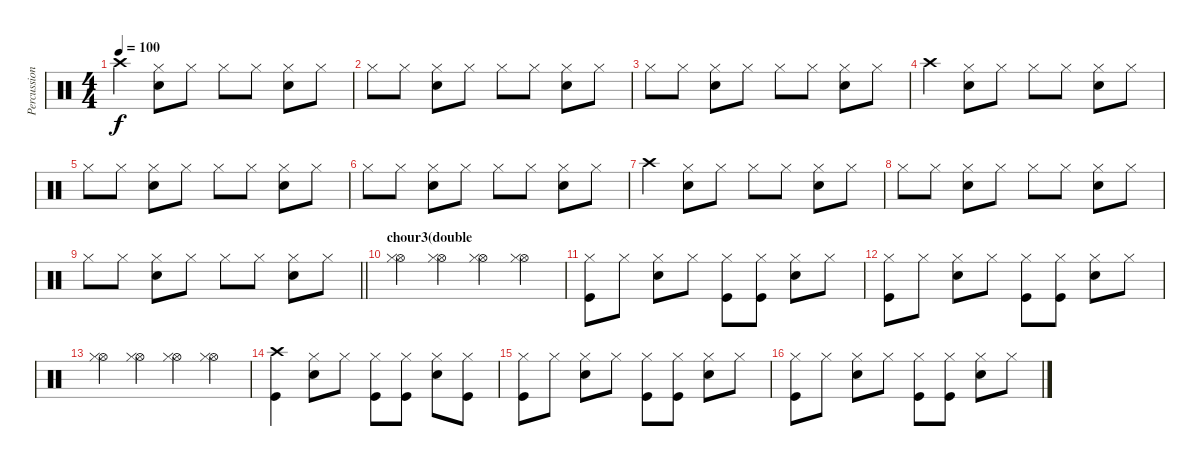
\track ("Percussioni" "Percussion") {instrument percussion}
\staff {score}
\articulation defaults
\ts (4 4)
\tempo 100
\clef neutral
\ks c "Crash high (hit)".4{dy f}
("Hi-Hat (closed)" "Snare (hit) 2").8 "Hi-Hat (closed)".8 "Hi-Hat (closed)".8 "Hi-Hat (closed)".8 ("Hi-Hat (closed)" "Snare (hit) 2").8 "Hi-Hat (closed)".8 |
"Hi-Hat (closed)".8 "Hi-Hat (closed)".8 ("Hi-Hat (closed)" "Snare (hit) 2").8 "Hi-Hat (closed)".8 "Hi-Hat (closed)".8 "Hi-Hat (closed)".8 ("Hi-Hat (closed)" "Snare (hit) 2").8 "Hi-Hat (closed)".8 |
"Hi-Hat (closed)".8 "Hi-Hat (closed)".8 ("Hi-Hat (closed)" "Snare (hit) 2").8 "Hi-Hat (closed)".8 "Hi-Hat (closed)".8 "Hi-Hat (closed)".8 ("Hi-Hat (closed)" "Snare (hit) 2").8 "Hi-Hat (closed)".8 |
"Crash high (hit)".4 ("Hi-Hat (closed)" "Snare (hit) 2").8 "Hi-Hat (closed)".8 "Hi-Hat (closed)".8 "Hi-Hat (closed)".8 ("Hi-Hat (closed)" "Snare (hit) 2").8 "Hi-Hat (closed)".8 |
"Hi-Hat (closed)".8 "Hi-Hat (closed)".8 ("Hi-Hat (closed)" "Snare (hit) 2").8 "Hi-Hat (closed)".8 "Hi-Hat (closed)".8 "Hi-Hat (closed)".8 ("Hi-Hat (closed)" "Snare (hit) 2").8 "Hi-Hat (closed)".8 |
"Hi-Hat (closed)".8 "Hi-Hat (closed)".8 ("Hi-Hat (closed)" "Snare (hit) 2").8 "Hi-Hat (closed)".8 "Hi-Hat (closed)".8 "Hi-Hat (closed)".8 ("Hi-Hat (closed)" "Snare (hit) 2").8 "Hi-Hat (closed)".8 |
"Crash high (hit)".4 ("Hi-Hat (closed)" "Snare (hit) 2").8 "Hi-Hat (closed)".8 "Hi-Hat (closed)".8 "Hi-Hat (closed)".8 ("Hi-Hat (closed)" "Snare (hit) 2").8 "Hi-Hat (closed)".8 |
"Hi-Hat (closed)".8 "Hi-Hat (closed)".8 ("Hi-Hat (closed)" "Snare (hit) 2").8 "Hi-Hat (closed)".8 "Hi-Hat (closed)".8 "Hi-Hat (closed)".8 ("Hi-Hat (closed)" "Snare (hit) 2").8 "Hi-Hat (closed)".8 |
\barLineRight lightlight "Hi-Hat (closed)".8 "Hi-Hat (closed)".8
("Hi-Hat (closed)" "Snare (hit) 2").8 "Hi-Hat (closed)".8 "Hi-Hat (closed)".8 "Hi-Hat (closed)".8 ("Hi-Hat (closed)" "Snare (hit) 2").8 "Hi-Hat (closed)".8 |
\section ("" "chour3(double")
("Hi-Hat (open)" "Hi-Hat (closed)").4 ("Hi-Hat (open)" "Hi-Hat (closed)").4 ("Hi-Hat (open)" "Hi-Hat (closed)").4 ("Hi-Hat (open)" "Hi-Hat (closed)").4 |
("Hi-Hat (closed)" "Kick (hit)").8 "Hi-Hat (closed)".8 ("Hi-Hat (closed)" "Snare (hit) 2").8 "Hi-Hat (closed)".8 ("Hi-Hat (closed)" "Kick (hit)").8 ("Hi-Hat (closed)" "Kick (hit)").8 ("Hi-Hat (closed)" "Snare (hit) 2").8 "Hi-Hat (closed)".8 |
("Hi-Hat (closed)" "Kick (hit)").8 "Hi-Hat (closed)".8 ("Hi-Hat (closed)" "Snare (hit) 2").8 "Hi-Hat (closed)".8 ("Hi-Hat (closed)" "Kick (hit)").8 ("Hi-Hat (closed)" "Kick (hit)").8 ("Hi-Hat (closed)" "Snare (hit) 2").8 "Hi-Hat (closed)".8 |
("Hi-Hat (open)" "Hi-Hat (closed)").4 ("Hi-Hat (open)" "Hi-Hat (closed)").4 ("Hi-Hat (open)" "Hi-Hat (closed)").4 ("Hi-Hat (open)" "Hi-Hat (closed)").4 |
("Crash high (hit)" "Kick (hit)").4 ("Hi-Hat (closed)" "Snare (hit) 2").8 "Hi-Hat (closed)".8 ("Hi-Hat (closed)" "Kick (hit)").8 ("Hi-Hat (closed)" "Kick (hit)").8 ("Hi-Hat (closed)" "Snare (hit) 2").8 ("Hi-Hat (closed)" "Kick (hit)").8 |
("Hi-Hat (closed)" "Kick (hit)").8 "Hi-Hat (closed)".8 ("Hi-Hat (closed)" "Snare (hit) 2").8 "Hi-Hat (closed)".8 ("Hi-Hat (closed)" "Kick (hit)").8 ("Hi-Hat (closed)" "Kick (hit)").8 ("Hi-Hat (closed)" "Snare (hit) 2").8 "Hi-Hat (closed)".8 |
("Hi-Hat (closed)" "Kick (hit)").8 "Hi-Hat (closed)".8 ("Hi-Hat (closed)" "Snare (hit) 2").8 "Hi-Hat (closed)".8 ("Hi-Hat (closed)" "Kick (hit)").8 ("Hi-Hat (closed)" "Kick (hit)").8 ("Hi-Hat (closed)" "Snare (hit) 2").8 "Hi-Hat (closed)".8
